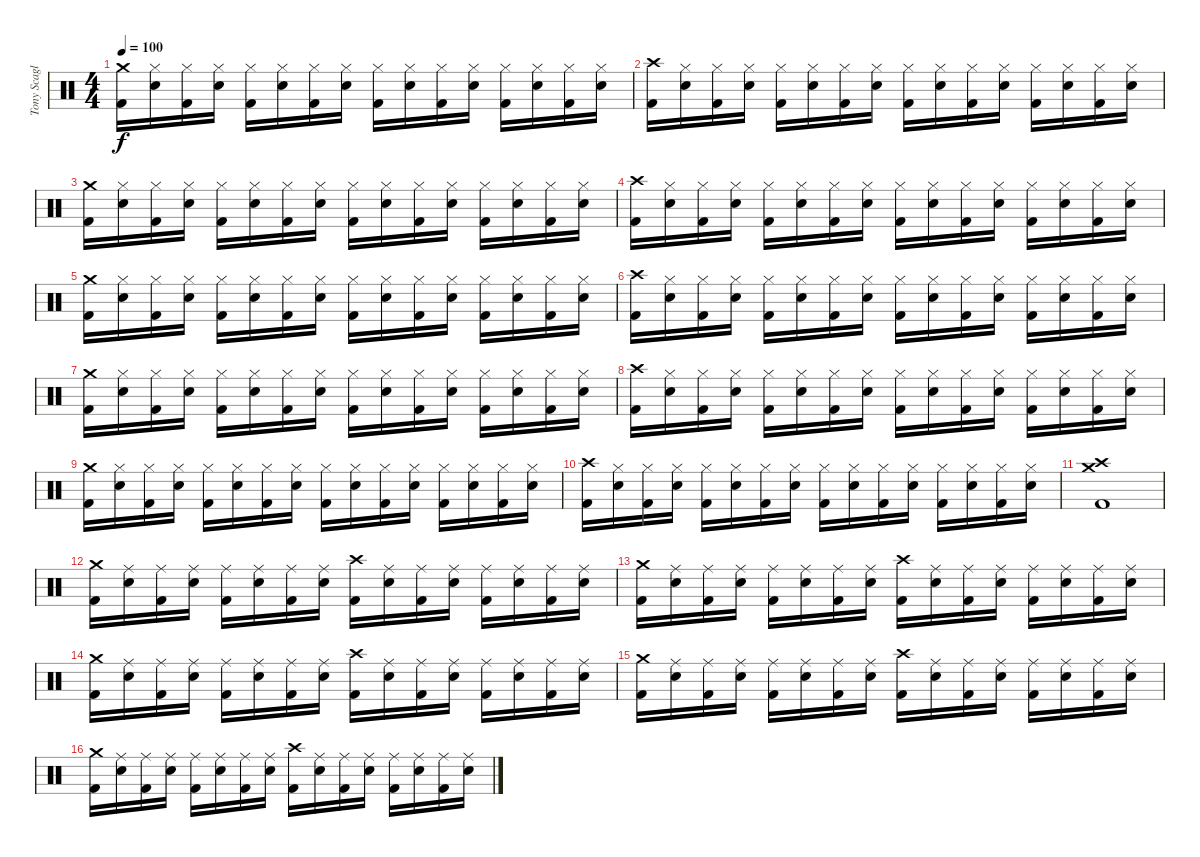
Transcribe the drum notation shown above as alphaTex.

\track ("Tony Scaglione" "Tony Scagl") {instrument percussion}
\staff {score}
\articulation defaults
\ts (4 4)
\tempo 100
\clef neutral
\ks c
("Crash medium (hit)" "Kick (hit) 2").16{dy f} ("Hi-Hat (closed)" "Snare (hit) 2").16 ("Hi-Hat (closed)" "Kick (hit) 2").16 ("Hi-Hat (closed)" "Snare (hit) 2").16 ("Hi-Hat (closed)" "Kick (hit) 2").16 ("Hi-Hat (closed)" "Snare (hit) 2").16 ("Hi-Hat (closed)" "Kick (hit) 2").16 ("Hi-Hat (closed)" "Snare (hit) 2").16 ("Hi-Hat (closed)" "Kick (hit) 2").16 ("Hi-Hat (closed)" "Snare (hit) 2").16 ("Hi-Hat (closed)" "Kick (hit) 2").16 ("Hi-Hat (closed)" "Snare (hit) 2").16 ("Hi-Hat (closed)" "Kick (hit) 2").16 ("Hi-Hat (closed)" "Snare (hit) 2").16 ("Hi-Hat (closed)" "Kick (hit) 2").16 ("Hi-Hat (closed)" "Snare (hit) 2").16 |
("Crash high (hit)" "Kick (hit) 2").16 ("Hi-Hat (closed)" "Snare (hit) 2").16 ("Hi-Hat (closed)" "Kick (hit) 2").16 ("Hi-Hat (closed)" "Snare (hit) 2").16 ("Hi-Hat (closed)" "Kick (hit) 2").16 ("Hi-Hat (closed)" "Snare (hit) 2").16 ("Hi-Hat (closed)" "Kick (hit) 2").16 ("Hi-Hat (closed)" "Snare (hit) 2").16 ("Hi-Hat (closed)" "Kick (hit) 2").16 ("Hi-Hat (closed)" "Snare (hit) 2").16 ("Hi-Hat (closed)" "Kick (hit) 2").16 ("Hi-Hat (closed)" "Snare (hit) 2").16 ("Hi-Hat (closed)" "Kick (hit) 2").16 ("Hi-Hat (closed)" "Snare (hit) 2").16 ("Hi-Hat (closed)" "Kick (hit) 2").16 ("Hi-Hat (closed)" "Snare (hit) 2").16 |
("Crash medium (hit)" "Kick (hit) 2").16 ("Hi-Hat (closed)" "Snare (hit) 2").16 ("Hi-Hat (closed)" "Kick (hit) 2").16 ("Hi-Hat (closed)" "Snare (hit) 2").16 ("Hi-Hat (closed)" "Kick (hit) 2").16 ("Hi-Hat (closed)" "Snare (hit) 2").16 ("Hi-Hat (closed)" "Kick (hit) 2").16 ("Hi-Hat (closed)" "Snare (hit) 2").16 ("Hi-Hat (closed)" "Kick (hit) 2").16 ("Hi-Hat (closed)" "Snare (hit) 2").16 ("Hi-Hat (closed)" "Kick (hit) 2").16 ("Hi-Hat (closed)" "Snare (hit) 2").16 ("Hi-Hat (closed)" "Kick (hit) 2").16 ("Hi-Hat (closed)" "Snare (hit) 2").16 ("Hi-Hat (closed)" "Kick (hit) 2").16 ("Hi-Hat (closed)" "Snare (hit) 2").16 |
("Crash high (hit)" "Kick (hit) 2").16 ("Hi-Hat (closed)" "Snare (hit) 2").16 ("Hi-Hat (closed)" "Kick (hit) 2").16 ("Hi-Hat (closed)" "Snare (hit) 2").16 ("Hi-Hat (closed)" "Kick (hit) 2").16 ("Hi-Hat (closed)" "Snare (hit) 2").16 ("Hi-Hat (closed)" "Kick (hit) 2").16 ("Hi-Hat (closed)" "Snare (hit) 2").16 ("Hi-Hat (closed)" "Kick (hit) 2").16 ("Hi-Hat (closed)" "Snare (hit) 2").16 ("Hi-Hat (closed)" "Kick (hit) 2").16 ("Hi-Hat (closed)" "Snare (hit) 2").16 ("Hi-Hat (closed)" "Kick (hit) 2").16 ("Hi-Hat (closed)" "Snare (hit) 2").16 ("Hi-Hat (closed)" "Kick (hit) 2").16 ("Hi-Hat (closed)" "Snare (hit) 2").16 |
("Crash medium (hit)" "Kick (hit) 2").16 ("Hi-Hat (closed)" "Snare (hit) 2").16 ("Hi-Hat (closed)" "Kick (hit) 2").16 ("Hi-Hat (closed)" "Snare (hit) 2").16 ("Hi-Hat (closed)" "Kick (hit) 2").16 ("Hi-Hat (closed)" "Snare (hit) 2").16 ("Hi-Hat (closed)" "Kick (hit) 2").16 ("Hi-Hat (closed)" "Snare (hit) 2").16 ("Hi-Hat (closed)" "Kick (hit) 2").16 ("Hi-Hat (closed)" "Snare (hit) 2").16 ("Hi-Hat (closed)" "Kick (hit) 2").16 ("Hi-Hat (closed)" "Snare (hit) 2").16 ("Hi-Hat (closed)" "Kick (hit) 2").16 ("Hi-Hat (closed)" "Snare (hit) 2").16 ("Hi-Hat (closed)" "Kick (hit) 2").16 ("Hi-Hat (closed)" "Snare (hit) 2").16 |
("Crash high (hit)" "Kick (hit) 2").16 ("Hi-Hat (closed)" "Snare (hit) 2").16 ("Hi-Hat (closed)" "Kick (hit) 2").16 ("Hi-Hat (closed)" "Snare (hit) 2").16 ("Hi-Hat (closed)" "Kick (hit) 2").16 ("Hi-Hat (closed)" "Snare (hit) 2").16 ("Hi-Hat (closed)" "Kick (hit) 2").16 ("Hi-Hat (closed)" "Snare (hit) 2").16 ("Hi-Hat (closed)" "Kick (hit) 2").16 ("Hi-Hat (closed)" "Snare (hit) 2").16 ("Hi-Hat (closed)" "Kick (hit) 2").16 ("Hi-Hat (closed)" "Snare (hit) 2").16 ("Hi-Hat (closed)" "Kick (hit) 2").16 ("Hi-Hat (closed)" "Snare (hit) 2").16 ("Hi-Hat (closed)" "Kick (hit) 2").16 ("Hi-Hat (closed)" "Snare (hit) 2").16 |
("Crash medium (hit)" "Kick (hit) 2").16 ("Hi-Hat (closed)" "Snare (hit) 2").16 ("Hi-Hat (closed)" "Kick (hit) 2").16 ("Hi-Hat (closed)" "Snare (hit) 2").16 ("Hi-Hat (closed)" "Kick (hit) 2").16 ("Hi-Hat (closed)" "Snare (hit) 2").16 ("Hi-Hat (closed)" "Kick (hit) 2").16 ("Hi-Hat (closed)" "Snare (hit) 2").16 ("Hi-Hat (closed)" "Kick (hit) 2").16 ("Hi-Hat (closed)" "Snare (hit) 2").16 ("Hi-Hat (closed)" "Kick (hit) 2").16 ("Hi-Hat (closed)" "Snare (hit) 2").16 ("Hi-Hat (closed)" "Kick (hit) 2").16 ("Hi-Hat (closed)" "Snare (hit) 2").16 ("Hi-Hat (closed)" "Kick (hit) 2").16 ("Hi-Hat (closed)" "Snare (hit) 2").16 |
("Crash high (hit)" "Kick (hit) 2").16 ("Hi-Hat (closed)" "Snare (hit) 2").16 ("Hi-Hat (closed)" "Kick (hit) 2").16 ("Hi-Hat (closed)" "Snare (hit) 2").16 ("Hi-Hat (closed)" "Kick (hit) 2").16 ("Hi-Hat (closed)" "Snare (hit) 2").16 ("Hi-Hat (closed)" "Kick (hit) 2").16 ("Hi-Hat (closed)" "Snare (hit) 2").16 ("Hi-Hat (closed)" "Kick (hit) 2").16 ("Hi-Hat (closed)" "Snare (hit) 2").16 ("Hi-Hat (closed)" "Kick (hit) 2").16 ("Hi-Hat (closed)" "Snare (hit) 2").16 ("Hi-Hat (closed)" "Kick (hit) 2").16 ("Hi-Hat (closed)" "Snare (hit) 2").16 ("Hi-Hat (closed)" "Kick (hit) 2").16 ("Hi-Hat (closed)" "Snare (hit) 2").16 |
("Crash medium (hit)" "Kick (hit) 2").16 ("Hi-Hat (closed)" "Snare (hit) 2").16 ("Hi-Hat (closed)" "Kick (hit) 2").16 ("Hi-Hat (closed)" "Snare (hit) 2").16 ("Hi-Hat (closed)" "Kick (hit) 2").16 ("Hi-Hat (closed)" "Snare (hit) 2").16 ("Hi-Hat (closed)" "Kick (hit) 2").16 ("Hi-Hat (closed)" "Snare (hit) 2").16 ("Hi-Hat (closed)" "Kick (hit) 2").16 ("Hi-Hat (closed)" "Snare (hit) 2").16 ("Hi-Hat (closed)" "Kick (hit) 2").16 ("Hi-Hat (closed)" "Snare (hit) 2").16 ("Hi-Hat (closed)" "Kick (hit) 2").16 ("Hi-Hat (closed)" "Snare (hit) 2").16 ("Hi-Hat (closed)" "Kick (hit) 2").16 ("Hi-Hat (closed)" "Snare (hit) 2").16 |
("Crash high (hit)" "Kick (hit) 2").16 ("Hi-Hat (closed)" "Snare (hit) 2").16 ("Hi-Hat (closed)" "Kick (hit) 2").16 ("Hi-Hat (closed)" "Snare (hit) 2").16 ("Hi-Hat (closed)" "Kick (hit) 2").16 ("Hi-Hat (closed)" "Snare (hit) 2").16 ("Hi-Hat (closed)" "Kick (hit) 2").16 ("Hi-Hat (closed)" "Snare (hit) 2").16 ("Hi-Hat (closed)" "Kick (hit) 2").16 ("Hi-Hat (closed)" "Snare (hit) 2").16 ("Hi-Hat (closed)" "Kick (hit) 2").16 ("Hi-Hat (closed)" "Snare (hit) 2").16 ("Hi-Hat (closed)" "Kick (hit) 2").16 ("Hi-Hat (closed)" "Snare (hit) 2").16 ("Hi-Hat (closed)" "Kick (hit) 2").16 ("Hi-Hat (closed)" "Snare (hit) 2").16 |
("Crash high (hit)" "Crash medium (hit)" "Kick (hit) 2").1 |
("Crash medium (hit)" "Kick (hit) 2").16 ("Ride (middle)" "Snare (hit) 2").16 ("Ride (middle)" "Kick (hit) 2").16 ("Ride (middle)" "Snare (hit) 2").16 ("Ride (middle)" "Kick (hit) 2").16 ("Ride (middle)" "Snare (hit) 2").16 ("Ride (middle)" "Kick (hit) 2").16 ("Ride (middle)" "Snare (hit) 2").16 ("Crash high (hit)" "Kick (hit) 2").16 ("Ride (middle)" "Snare (hit) 2").16 ("Ride (middle)" "Kick (hit) 2").16 ("Ride (middle)" "Snare (hit) 2").16 ("Ride (middle)" "Kick (hit) 2").16 ("Ride (middle)" "Snare (hit) 2").16 ("Ride (middle)" "Kick (hit) 2").16 ("Ride (middle)" "Snare (hit) 2").16 |
("Crash medium (hit)" "Kick (hit) 2").16 ("Ride (middle)" "Snare (hit) 2").16 ("Ride (middle)" "Kick (hit) 2").16 ("Ride (middle)" "Snare (hit) 2").16 ("Ride (middle)" "Kick (hit) 2").16 ("Ride (middle)" "Snare (hit) 2").16 ("Ride (middle)" "Kick (hit) 2").16 ("Ride (middle)" "Snare (hit) 2").16 ("Crash high (hit)" "Kick (hit) 2").16 ("Ride (middle)" "Snare (hit) 2").16 ("Ride (middle)" "Kick (hit) 2").16 ("Ride (middle)" "Snare (hit) 2").16 ("Ride (middle)" "Kick (hit) 2").16 ("Ride (middle)" "Snare (hit) 2").16 ("Ride (middle)" "Kick (hit) 2").16 ("Ride (middle)" "Snare (hit) 2").16 |
("Crash medium (hit)" "Kick (hit) 2").16 ("Ride (middle)" "Snare (hit) 2").16 ("Ride (middle)" "Kick (hit) 2").16 ("Ride (middle)" "Snare (hit) 2").16 ("Ride (middle)" "Kick (hit) 2").16 ("Ride (middle)" "Snare (hit) 2").16 ("Ride (middle)" "Kick (hit) 2").16 ("Ride (middle)" "Snare (hit) 2").16 ("Crash high (hit)" "Kick (hit) 2").16 ("Ride (middle)" "Snare (hit) 2").16 ("Ride (middle)" "Kick (hit) 2").16 ("Ride (middle)" "Snare (hit) 2").16 ("Ride (middle)" "Kick (hit) 2").16 ("Ride (middle)" "Snare (hit) 2").16 ("Ride (middle)" "Kick (hit) 2").16 ("Ride (middle)" "Snare (hit) 2").16 |
("Crash medium (hit)" "Kick (hit) 2").16 ("Ride (middle)" "Snare (hit) 2").16 ("Ride (middle)" "Kick (hit) 2").16 ("Ride (middle)" "Snare (hit) 2").16 ("Ride (middle)" "Kick (hit) 2").16 ("Ride (middle)" "Snare (hit) 2").16 ("Ride (middle)" "Kick (hit) 2").16 ("Ride (middle)" "Snare (hit) 2").16 ("Crash high (hit)" "Kick (hit) 2").16 ("Ride (middle)" "Snare (hit) 2").16 ("Ride (middle)" "Kick (hit) 2").16 ("Ride (middle)" "Snare (hit) 2").16 ("Ride (middle)" "Kick (hit) 2").16 ("Ride (middle)" "Snare (hit) 2").16 ("Ride (middle)" "Kick (hit) 2").16 ("Ride (middle)" "Snare (hit) 2").16 |
("Crash medium (hit)" "Kick (hit) 2").16 ("Ride (middle)" "Snare (hit) 2").16 ("Ride (middle)" "Kick (hit) 2").16 ("Ride (middle)" "Snare (hit) 2").16 ("Ride (middle)" "Kick (hit) 2").16 ("Ride (middle)" "Snare (hit) 2").16 ("Ride (middle)" "Kick (hit) 2").16 ("Ride (middle)" "Snare (hit) 2").16 ("Crash high (hit)" "Kick (hit) 2").16 ("Ride (middle)" "Snare (hit) 2").16 ("Ride (middle)" "Kick (hit) 2").16 ("Ride (middle)" "Snare (hit) 2").16 ("Ride (middle)" "Kick (hit) 2").16 ("Ride (middle)" "Snare (hit) 2").16 ("Ride (middle)" "Kick (hit) 2").16 ("Ride (middle)" "Snare (hit) 2").16
